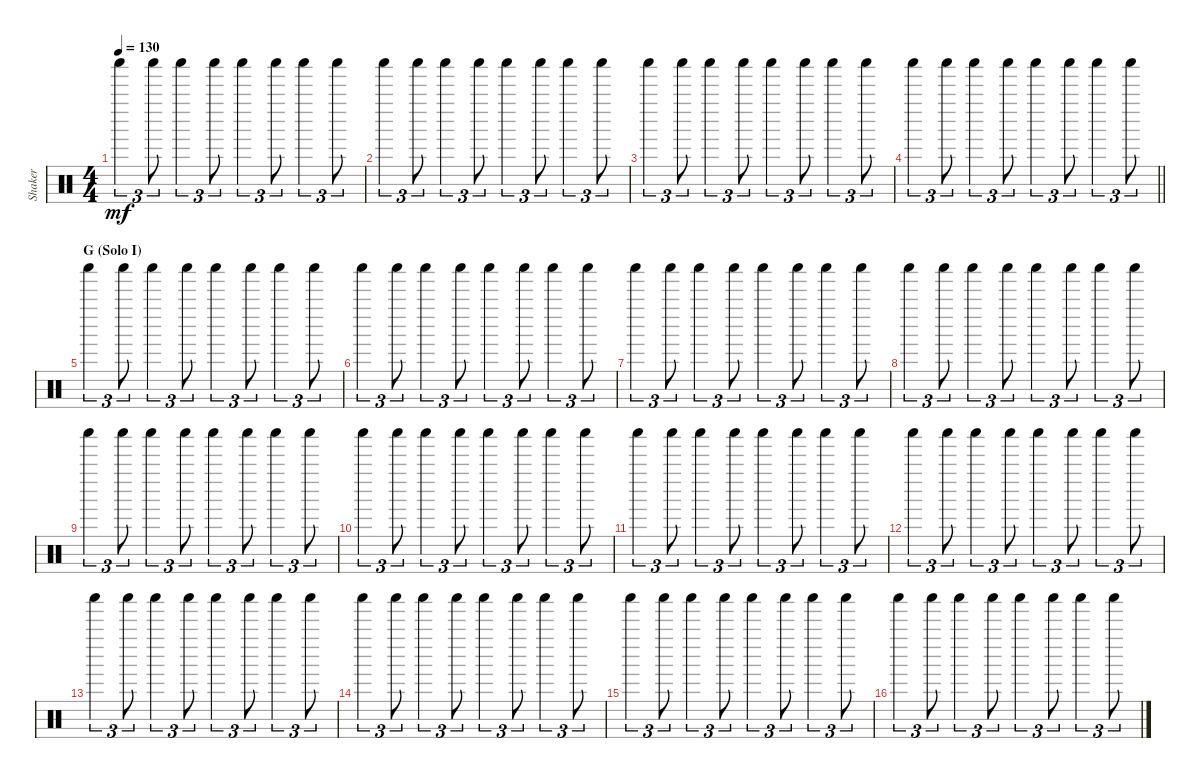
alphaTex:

\track ("Shaker" "Shaker") {instrument percussion}
\staff {score}
\articulation defaults
\ts (4 4)
\tempo 130
\clef neutral
\ks c "Shaker (hit)".4{tu (3 2) dy mf} "Shaker (hit)".8{tu (3 2)} "Shaker (hit)".4{tu (3 2)} "Shaker (hit)".8{tu (3 2)} "Shaker (hit)".4{tu (3 2)} "Shaker (hit)".8{tu (3 2)} "Shaker (hit)".4{tu (3 2)} "Shaker (hit)".8{tu (3 2)}
|
"Shaker (hit)".4{tu (3 2)} "Shaker (hit)".8{tu (3 2)} "Shaker (hit)".4{tu (3 2)} "Shaker (hit)".8{tu (3 2)} "Shaker (hit)".4{tu (3 2)} "Shaker (hit)".8{tu (3 2)} "Shaker (hit)".4{tu (3 2)} "Shaker (hit)".8{tu (3 2)} |
"Shaker (hit)".4{tu (3 2)} "Shaker (hit)".8{tu (3 2)} "Shaker (hit)".4{tu (3 2)} "Shaker (hit)".8{tu (3 2)} "Shaker (hit)".4{tu (3 2)} "Shaker (hit)".8{tu (3 2)} "Shaker (hit)".4{tu (3 2)} "Shaker (hit)".8{tu (3 2)} |
\barLineRight lightlight "Shaker (hit)".4{tu (3 2)} "Shaker (hit)".8{tu (3 2)} "Shaker (hit)".4{tu (3 2)} "Shaker (hit)".8{tu (3 2)} "Shaker (hit)".4{tu (3 2)} "Shaker (hit)".8{tu (3 2)} "Shaker (hit)".4{tu (3 2)} "Shaker (hit)".8{tu (3 2)}
|
\section ("" "G (Solo I)")
"Shaker (hit)".4{tu (3 2)} "Shaker (hit)".8{tu (3 2)} "Shaker (hit)".4{tu (3 2)} "Shaker (hit)".8{tu (3 2)} "Shaker (hit)".4{tu (3 2)} "Shaker (hit)".8{tu (3 2)} "Shaker (hit)".4{tu (3 2)} "Shaker (hit)".8{tu (3 2)} |
"Shaker (hit)".4{tu (3 2)} "Shaker (hit)".8{tu (3 2)} "Shaker (hit)".4{tu (3 2)} "Shaker (hit)".8{tu (3 2)} "Shaker (hit)".4{tu (3 2)} "Shaker (hit)".8{tu (3 2)} "Shaker (hit)".4{tu (3 2)} "Shaker (hit)".8{tu (3 2)} |
"Shaker (hit)".4{tu (3 2)} "Shaker (hit)".8{tu (3 2)} "Shaker (hit)".4{tu (3 2)} "Shaker (hit)".8{tu (3 2)} "Shaker (hit)".4{tu (3 2)} "Shaker (hit)".8{tu (3 2)} "Shaker (hit)".4{tu (3 2)} "Shaker (hit)".8{tu (3 2)} |
"Shaker (hit)".4{tu (3 2)} "Shaker (hit)".8{tu (3 2)} "Shaker (hit)".4{tu (3 2)} "Shaker (hit)".8{tu (3 2)} "Shaker (hit)".4{tu (3 2)} "Shaker (hit)".8{tu (3 2)} "Shaker (hit)".4{tu (3 2)} "Shaker (hit)".8{tu (3 2)} |
"Shaker (hit)".4{tu (3 2)} "Shaker (hit)".8{tu (3 2)} "Shaker (hit)".4{tu (3 2)} "Shaker (hit)".8{tu (3 2)} "Shaker (hit)".4{tu (3 2)} "Shaker (hit)".8{tu (3 2)} "Shaker (hit)".4{tu (3 2)} "Shaker (hit)".8{tu (3 2)} |
"Shaker (hit)".4{tu (3 2)} "Shaker (hit)".8{tu (3 2)} "Shaker (hit)".4{tu (3 2)} "Shaker (hit)".8{tu (3 2)} "Shaker (hit)".4{tu (3 2)} "Shaker (hit)".8{tu (3 2)} "Shaker (hit)".4{tu (3 2)} "Shaker (hit)".8{tu (3 2)} |
"Shaker (hit)".4{tu (3 2)} "Shaker (hit)".8{tu (3 2)} "Shaker (hit)".4{tu (3 2)} "Shaker (hit)".8{tu (3 2)} "Shaker (hit)".4{tu (3 2)} "Shaker (hit)".8{tu (3 2)} "Shaker (hit)".4{tu (3 2)} "Shaker (hit)".8{tu (3 2)} |
"Shaker (hit)".4{tu (3 2)} "Shaker (hit)".8{tu (3 2)} "Shaker (hit)".4{tu (3 2)} "Shaker (hit)".8{tu (3 2)} "Shaker (hit)".4{tu (3 2)} "Shaker (hit)".8{tu (3 2)} "Shaker (hit)".4{tu (3 2)} "Shaker (hit)".8{tu (3 2)} |
"Shaker (hit)".4{tu (3 2)} "Shaker (hit)".8{tu (3 2)} "Shaker (hit)".4{tu (3 2)} "Shaker (hit)".8{tu (3 2)} "Shaker (hit)".4{tu (3 2)} "Shaker (hit)".8{tu (3 2)} "Shaker (hit)".4{tu (3 2)} "Shaker (hit)".8{tu (3 2)} |
"Shaker (hit)".4{tu (3 2)} "Shaker (hit)".8{tu (3 2)} "Shaker (hit)".4{tu (3 2)} "Shaker (hit)".8{tu (3 2)} "Shaker (hit)".4{tu (3 2)} "Shaker (hit)".8{tu (3 2)} "Shaker (hit)".4{tu (3 2)} "Shaker (hit)".8{tu (3 2)} |
"Shaker (hit)".4{tu (3 2)} "Shaker (hit)".8{tu (3 2)} "Shaker (hit)".4{tu (3 2)} "Shaker (hit)".8{tu (3 2)} "Shaker (hit)".4{tu (3 2)} "Shaker (hit)".8{tu (3 2)} "Shaker (hit)".4{tu (3 2)} "Shaker (hit)".8{tu (3 2)} |
"Shaker (hit)".4{tu (3 2)} "Shaker (hit)".8{tu (3 2)} "Shaker (hit)".4{tu (3 2)} "Shaker (hit)".8{tu (3 2)} "Shaker (hit)".4{tu (3 2)} "Shaker (hit)".8{tu (3 2)} "Shaker (hit)".4{tu (3 2)} "Shaker (hit)".8{tu (3 2)}
